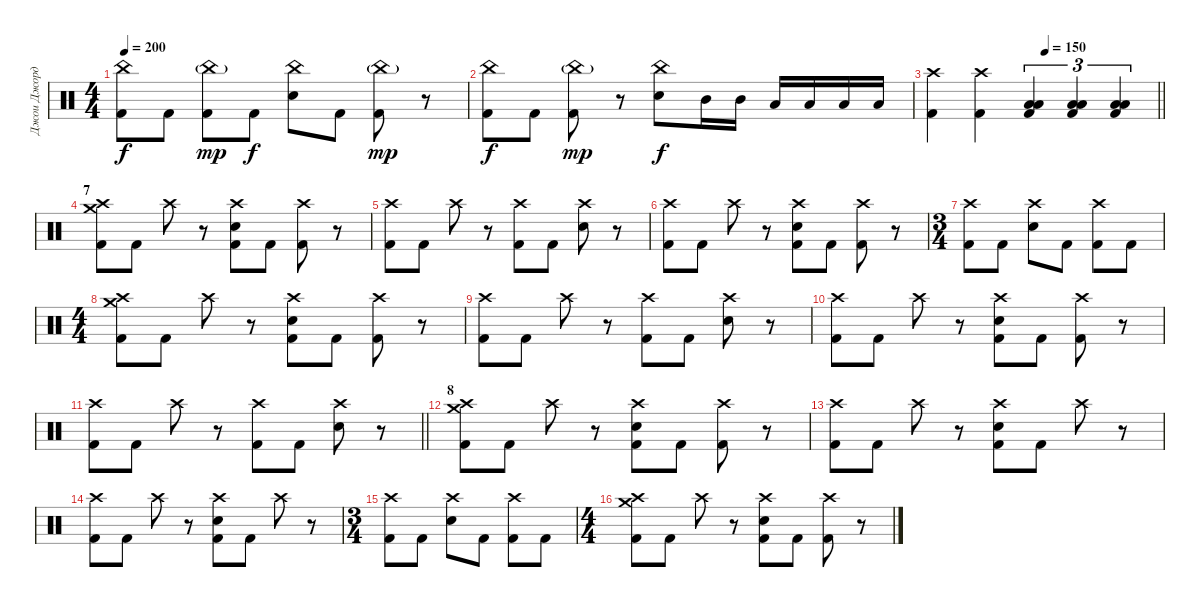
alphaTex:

\track ("Джои Джордисон" "Джои Джорд") {instrument percussion}
\staff {score}
\articulation defaults
\ts (4 4)
\tempo 200
\clef neutral
\ks c
("China (hit)" "Kick (hit) 2").8{dy f} "Kick (hit) 2".8 ("China (hit)"{g} "Kick (hit) 2").8{dy mp} "Kick (hit) 2".8{dy f} ("China (hit)" "Electric Snare (hit)").8 "Kick (hit) 2".8 ("China (hit)"{g} "Kick (hit) 2").8{dy mp} r.8 |
("China (hit)" "Kick (hit) 2").8{dy f} "Kick (hit) 2".8 ("China (hit)"{g} "Kick (hit) 2").8{dy mp} r.8 ("China (hit)" "Electric Snare (hit)").8{dy f} "Mid Tom (hit)".16 "Mid Tom (hit)".16 "Low Tom (hit)".16 "Low Tom (hit)".16 "Low Floor Tom (hit)".16 "Low Floor Tom (hit)".16 |
\tempo (150 0.5)
\barLineRight lightlight
("Crash high (hit)" "Kick (hit) 2").4 ("Crash high (hit)" "Kick (hit) 2").4 ("Low Floor Tom (hit)" "Low Tom (hit)" "Kick (hit) 2").4{tu (3 2)} ("Low Floor Tom (hit)" "Low Tom (hit)" "Kick (hit) 2").4{tu (3 2)} ("Low Floor Tom (hit)" "Low Tom (hit)" "Kick (hit) 2").4{tu (3 2)} |
\section ("" "7")
("Crash high (hit)" "Crash medium (hit)" "Kick (hit) 2").8 "Kick (hit) 2".8 "Crash high (hit)".8 r.8 ("Crash high (hit)" "Electric Snare (hit)" "Kick (hit) 2").8 "Kick (hit) 2".8 ("Crash high (hit)" "Kick (hit) 2").8 r.8 |
("Crash high (hit)" "Kick (hit) 2").8 "Kick (hit) 2".8 "Crash high (hit)".8 r.8 ("Crash high (hit)" "Kick (hit) 2").8 "Kick (hit) 2".8 ("Crash high (hit)" "Electric Snare (hit)").8 r.8 |
("Crash high (hit)" "Kick (hit) 2").8 "Kick (hit) 2".8 "Crash high (hit)".8 r.8 ("Crash high (hit)" "Electric Snare (hit)" "Kick (hit) 2").8 "Kick (hit) 2".8 ("Crash high (hit)" "Kick (hit) 2").8 r.8 |
\ts (3 4)
("Crash high (hit)" "Kick (hit) 2").8 "Kick (hit) 2".8 ("Crash high (hit)" "Electric Snare (hit)").8 "Kick (hit) 2".8 ("Crash high (hit)" "Kick (hit) 2").8 "Kick (hit) 2".8 |
\ts (4 4)
("Crash high (hit)" "Crash medium (hit)" "Kick (hit) 2").8 "Kick (hit) 2".8 "Crash high (hit)".8 r.8 ("Crash high (hit)" "Electric Snare (hit)" "Kick (hit) 2").8 "Kick (hit) 2".8 ("Crash high (hit)" "Kick (hit) 2").8 r.8 |
("Crash high (hit)" "Kick (hit) 2").8 "Kick (hit) 2".8 "Crash high (hit)".8 r.8 ("Crash high (hit)" "Kick (hit) 2").8 "Kick (hit) 2".8 ("Crash high (hit)" "Electric Snare (hit)").8 r.8 |
("Crash high (hit)" "Kick (hit) 2").8 "Kick (hit) 2".8 "Crash high (hit)".8 r.8 ("Crash high (hit)" "Electric Snare (hit)" "Kick (hit) 2").8 "Kick (hit) 2".8 ("Crash high (hit)" "Kick (hit) 2").8 r.8 |
\barLineRight lightlight
("Crash high (hit)" "Kick (hit) 2").8 "Kick (hit) 2".8 "Crash high (hit)".8 r.8 ("Crash high (hit)" "Kick (hit) 2").8 "Kick (hit) 2".8 ("Crash high (hit)" "Electric Snare (hit)").8 r.8 |
\section ("" "8")
("Crash high (hit)" "Crash medium (hit)" "Kick (hit) 2").8 "Kick (hit) 2".8 "Crash high (hit)".8 r.8 ("Crash high (hit)" "Electric Snare (hit)" "Kick (hit) 2").8 "Kick (hit) 2".8 ("Crash high (hit)" "Kick (hit) 2").8 r.8 |
("Crash high (hit)" "Kick (hit) 2").8 "Kick (hit) 2".8 "Crash high (hit)".8 r.8 ("Crash high (hit)" "Electric Snare (hit)" "Kick (hit) 2").8 "Kick (hit) 2".8 "Crash high (hit)".8 r.8 |
("Crash high (hit)" "Kick (hit) 2").8 "Kick (hit) 2".8 "Crash high (hit)".8 r.8 ("Crash high (hit)" "Electric Snare (hit)" "Kick (hit) 2").8 "Kick (hit) 2".8 "Crash high (hit)".8 r.8 |
\ts (3 4)
("Crash high (hit)" "Kick (hit) 2").8 "Kick (hit) 2".8 ("Crash high (hit)" "Electric Snare (hit)").8 "Kick (hit) 2".8 ("Crash high (hit)" "Kick (hit) 2").8 "Kick (hit) 2".8 |
\ts (4 4)
("Crash high (hit)" "Crash medium (hit)" "Kick (hit) 2").8 "Kick (hit) 2".8 "Crash high (hit)".8 r.8 ("Crash high (hit)" "Electric Snare (hit)" "Kick (hit) 2").8 "Kick (hit) 2".8 ("Crash high (hit)" "Kick (hit) 2").8 r.8
